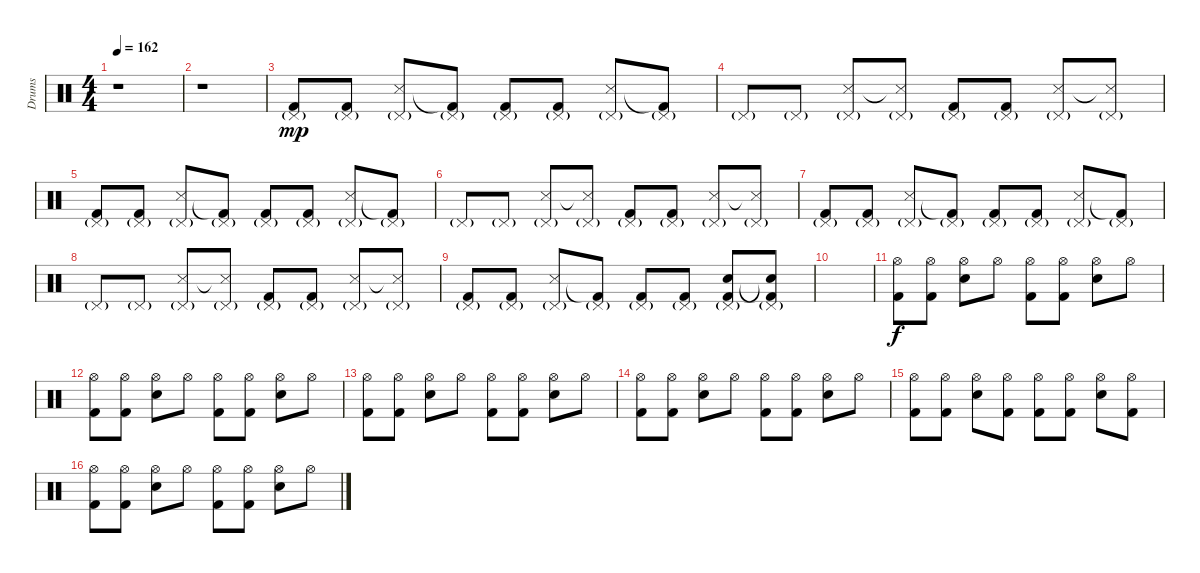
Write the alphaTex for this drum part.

\track ("Drums" "Drums") {instrument percussion}
\staff {score}
\articulation defaults
\ts (4 4)
\tempo 162
\clef neutral
\ks c
r.1{dy mp} |
r.1 |
("Pedal Hi-Hat (hit)"{g} "Kick (hit) 2").8 ("Pedal Hi-Hat (hit)"{g} "Kick (hit) 2").8 ("Pedal Hi-Hat (hit)"{g} "Snare (side stick) 3").8 ("Pedal Hi-Hat (hit)"{g} "Kick (hit) 2"{t}).8 ("Pedal Hi-Hat (hit)"{g} "Kick (hit) 2").8 ("Pedal Hi-Hat (hit)"{g} "Kick (hit) 2").8 ("Pedal Hi-Hat (hit)"{g} "Snare (side stick) 3").8 ("Pedal Hi-Hat (hit)"{g} "Kick (hit) 2"{t}).8 |
"Pedal Hi-Hat (hit)"{g}.8 "Pedal Hi-Hat (hit)"{g}.8 ("Pedal Hi-Hat (hit)"{g} "Snare (side stick) 3").8 ("Pedal Hi-Hat (hit)"{g} "Snare (side stick) 3"{t}).8 ("Pedal Hi-Hat (hit)"{g} "Kick (hit) 2").8 ("Pedal Hi-Hat (hit)"{g} "Kick (hit) 2").8 ("Pedal Hi-Hat (hit)"{g} "Snare (side stick) 3").8 ("Pedal Hi-Hat (hit)"{g} "Snare (side stick) 3"{t}).8 |
("Pedal Hi-Hat (hit)"{g} "Kick (hit) 2").8 ("Pedal Hi-Hat (hit)"{g} "Kick (hit) 2").8 ("Pedal Hi-Hat (hit)"{g} "Snare (side stick) 3").8 ("Pedal Hi-Hat (hit)"{g} "Kick (hit) 2"{t}).8 ("Pedal Hi-Hat (hit)"{g} "Kick (hit) 2").8 ("Pedal Hi-Hat (hit)"{g} "Kick (hit) 2").8 ("Pedal Hi-Hat (hit)"{g} "Snare (side stick) 3").8 ("Pedal Hi-Hat (hit)"{g} "Kick (hit) 2"{t}).8 |
"Pedal Hi-Hat (hit)"{g}.8 "Pedal Hi-Hat (hit)"{g}.8 ("Pedal Hi-Hat (hit)"{g} "Snare (side stick) 3").8 ("Pedal Hi-Hat (hit)"{g} "Snare (side stick) 3"{t}).8 ("Pedal Hi-Hat (hit)"{g} "Kick (hit) 2").8 ("Pedal Hi-Hat (hit)"{g} "Kick (hit) 2").8 ("Pedal Hi-Hat (hit)"{g} "Snare (side stick) 3").8 ("Pedal Hi-Hat (hit)"{g} "Snare (side stick) 3"{t}).8 |
("Pedal Hi-Hat (hit)"{g} "Kick (hit) 2").8 ("Pedal Hi-Hat (hit)"{g} "Kick (hit) 2").8 ("Pedal Hi-Hat (hit)"{g} "Snare (side stick) 3").8 ("Pedal Hi-Hat (hit)"{g} "Kick (hit) 2"{t}).8 ("Pedal Hi-Hat (hit)"{g} "Kick (hit) 2").8 ("Pedal Hi-Hat (hit)"{g} "Kick (hit) 2").8 ("Pedal Hi-Hat (hit)"{g} "Snare (side stick) 3").8 ("Pedal Hi-Hat (hit)"{g} "Kick (hit) 2"{t}).8 |
"Pedal Hi-Hat (hit)"{g}.8 "Pedal Hi-Hat (hit)"{g}.8 ("Pedal Hi-Hat (hit)"{g} "Snare (side stick) 3").8 ("Pedal Hi-Hat (hit)"{g} "Snare (side stick) 3"{t}).8 ("Pedal Hi-Hat (hit)"{g} "Kick (hit) 2").8 ("Pedal Hi-Hat (hit)"{g} "Kick (hit) 2").8 ("Pedal Hi-Hat (hit)"{g} "Snare (side stick) 3").8 ("Pedal Hi-Hat (hit)"{g} "Snare (side stick) 3"{t}).8 |
("Pedal Hi-Hat (hit)"{g} "Kick (hit) 2").8 ("Pedal Hi-Hat (hit)"{g} "Kick (hit) 2").8 ("Pedal Hi-Hat (hit)"{g} "Snare (side stick) 3").8 ("Pedal Hi-Hat (hit)"{g} "Kick (hit) 2"{t}).8 ("Pedal Hi-Hat (hit)"{g} "Kick (hit) 2").8 ("Pedal Hi-Hat (hit)"{g} "Kick (hit) 2").8 ("Pedal Hi-Hat (hit)"{g} "Kick (hit) 2" "Electric Snare (hit)").8 ("Pedal Hi-Hat (hit)"{g} "Snare (hit)"{t} "Kick (hit) 2"{t}).8 |
|
("Hi-Hat (open)" "Kick (hit) 2").8{dy f} ("Hi-Hat (open)" "Kick (hit) 2").8 ("Hi-Hat (open)" "Electric Snare (hit)").8 "Hi-Hat (open)".8 ("Hi-Hat (open)" "Kick (hit) 2").8 ("Hi-Hat (open)" "Kick (hit) 2").8 ("Hi-Hat (open)" "Electric Snare (hit)").8 "Hi-Hat (open)".8 |
("Hi-Hat (open)" "Kick (hit) 2").8 ("Hi-Hat (open)" "Kick (hit) 2").8 ("Hi-Hat (open)" "Electric Snare (hit)").8 "Hi-Hat (open)".8 ("Hi-Hat (open)" "Kick (hit) 2").8 ("Hi-Hat (open)" "Kick (hit) 2").8 ("Hi-Hat (open)" "Electric Snare (hit)").8 "Hi-Hat (open)".8 |
("Hi-Hat (open)" "Kick (hit) 2").8 ("Hi-Hat (open)" "Kick (hit) 2").8 ("Hi-Hat (open)" "Electric Snare (hit)").8 "Hi-Hat (open)".8 ("Hi-Hat (open)" "Kick (hit) 2").8 ("Hi-Hat (open)" "Kick (hit) 2").8 ("Hi-Hat (open)" "Electric Snare (hit)").8 "Hi-Hat (open)".8 |
("Hi-Hat (open)" "Kick (hit) 2").8 ("Hi-Hat (open)" "Kick (hit) 2").8 ("Hi-Hat (open)" "Electric Snare (hit)").8 "Hi-Hat (open)".8 ("Hi-Hat (open)" "Kick (hit) 2").8 ("Hi-Hat (open)" "Kick (hit) 2").8 ("Hi-Hat (open)" "Electric Snare (hit)").8 "Hi-Hat (open)".8 |
("Hi-Hat (open)" "Kick (hit) 2").8 ("Hi-Hat (open)" "Kick (hit) 2").8 ("Hi-Hat (open)" "Electric Snare (hit)").8 ("Hi-Hat (open)" "Kick (hit) 2").8 ("Hi-Hat (open)" "Kick (hit) 2").8 ("Hi-Hat (open)" "Kick (hit) 2").8 ("Hi-Hat (open)" "Electric Snare (hit)").8 ("Hi-Hat (open)" "Kick (hit) 2").8 |
("Hi-Hat (open)" "Kick (hit) 2").8 ("Hi-Hat (open)" "Kick (hit) 2").8 ("Hi-Hat (open)" "Electric Snare (hit)").8 "Hi-Hat (open)".8 ("Hi-Hat (open)" "Kick (hit) 2").8 ("Hi-Hat (open)" "Kick (hit) 2").8 ("Hi-Hat (open)" "Electric Snare (hit)").8 "Hi-Hat (open)".8
